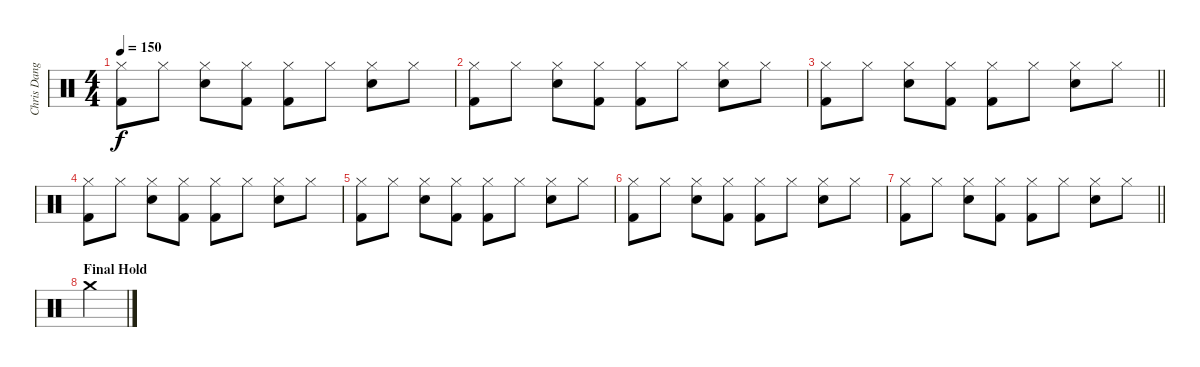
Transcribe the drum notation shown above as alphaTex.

\track ("Chris Dangerous" "Chris Dang") {instrument percussion}
\staff {score}
\articulation defaults
\ts (4 4)
\tempo 150
\clef neutral
\ks c
("Hi-Hat (closed)" "Kick (hit) 2").8{dy f} "Hi-Hat (closed)".8 ("Hi-Hat (closed)" "Snare (hit) 2").8 ("Hi-Hat (closed)" "Kick (hit) 2").8 ("Hi-Hat (closed)" "Kick (hit) 2").8 "Hi-Hat (closed)".8 ("Hi-Hat (closed)" "Snare (hit) 2").8 "Hi-Hat (closed)".8 |
("Hi-Hat (closed)" "Kick (hit) 2").8 "Hi-Hat (closed)".8 ("Hi-Hat (closed)" "Snare (hit) 2").8 ("Hi-Hat (closed)" "Kick (hit) 2").8 ("Hi-Hat (closed)" "Kick (hit) 2").8 "Hi-Hat (closed)".8 ("Hi-Hat (closed)" "Snare (hit) 2").8 "Hi-Hat (closed)".8 |
\barLineRight lightlight
("Hi-Hat (closed)" "Kick (hit) 2").8 "Hi-Hat (closed)".8 ("Hi-Hat (closed)" "Snare (hit) 2").8 ("Hi-Hat (closed)" "Kick (hit) 2").8 ("Hi-Hat (closed)" "Kick (hit) 2").8 "Hi-Hat (closed)".8 ("Hi-Hat (closed)" "Snare (hit) 2").8 "Hi-Hat (closed)".8 |
("Hi-Hat (closed)" "Kick (hit) 2").8 "Hi-Hat (closed)".8 ("Hi-Hat (closed)" "Snare (hit) 2").8 ("Hi-Hat (closed)" "Kick (hit) 2").8 ("Hi-Hat (closed)" "Kick (hit) 2").8 "Hi-Hat (closed)".8 ("Hi-Hat (closed)" "Snare (hit) 2").8 "Hi-Hat (closed)".8 |
("Hi-Hat (closed)" "Kick (hit) 2").8 "Hi-Hat (closed)".8 ("Hi-Hat (closed)" "Snare (hit) 2").8 ("Hi-Hat (closed)" "Kick (hit) 2").8 ("Hi-Hat (closed)" "Kick (hit) 2").8 "Hi-Hat (closed)".8 ("Hi-Hat (closed)" "Snare (hit) 2").8 "Hi-Hat (closed)".8 |
("Hi-Hat (closed)" "Kick (hit) 2").8 "Hi-Hat (closed)".8 ("Hi-Hat (closed)" "Snare (hit) 2").8 ("Hi-Hat (closed)" "Kick (hit) 2").8 ("Hi-Hat (closed)" "Kick (hit) 2").8 "Hi-Hat (closed)".8 ("Hi-Hat (closed)" "Snare (hit) 2").8 "Hi-Hat (closed)".8 |
\barLineRight lightlight
("Hi-Hat (closed)" "Kick (hit) 2").8 "Hi-Hat (closed)".8 ("Hi-Hat (closed)" "Snare (hit) 2").8 ("Hi-Hat (closed)" "Kick (hit) 2").8 ("Hi-Hat (closed)" "Kick (hit) 2").8 "Hi-Hat (closed)".8 ("Hi-Hat (closed)" "Snare (hit) 2").8 "Hi-Hat (closed)".8 |
\section ("" "Final Hold")
"Crash medium (hit)".4
